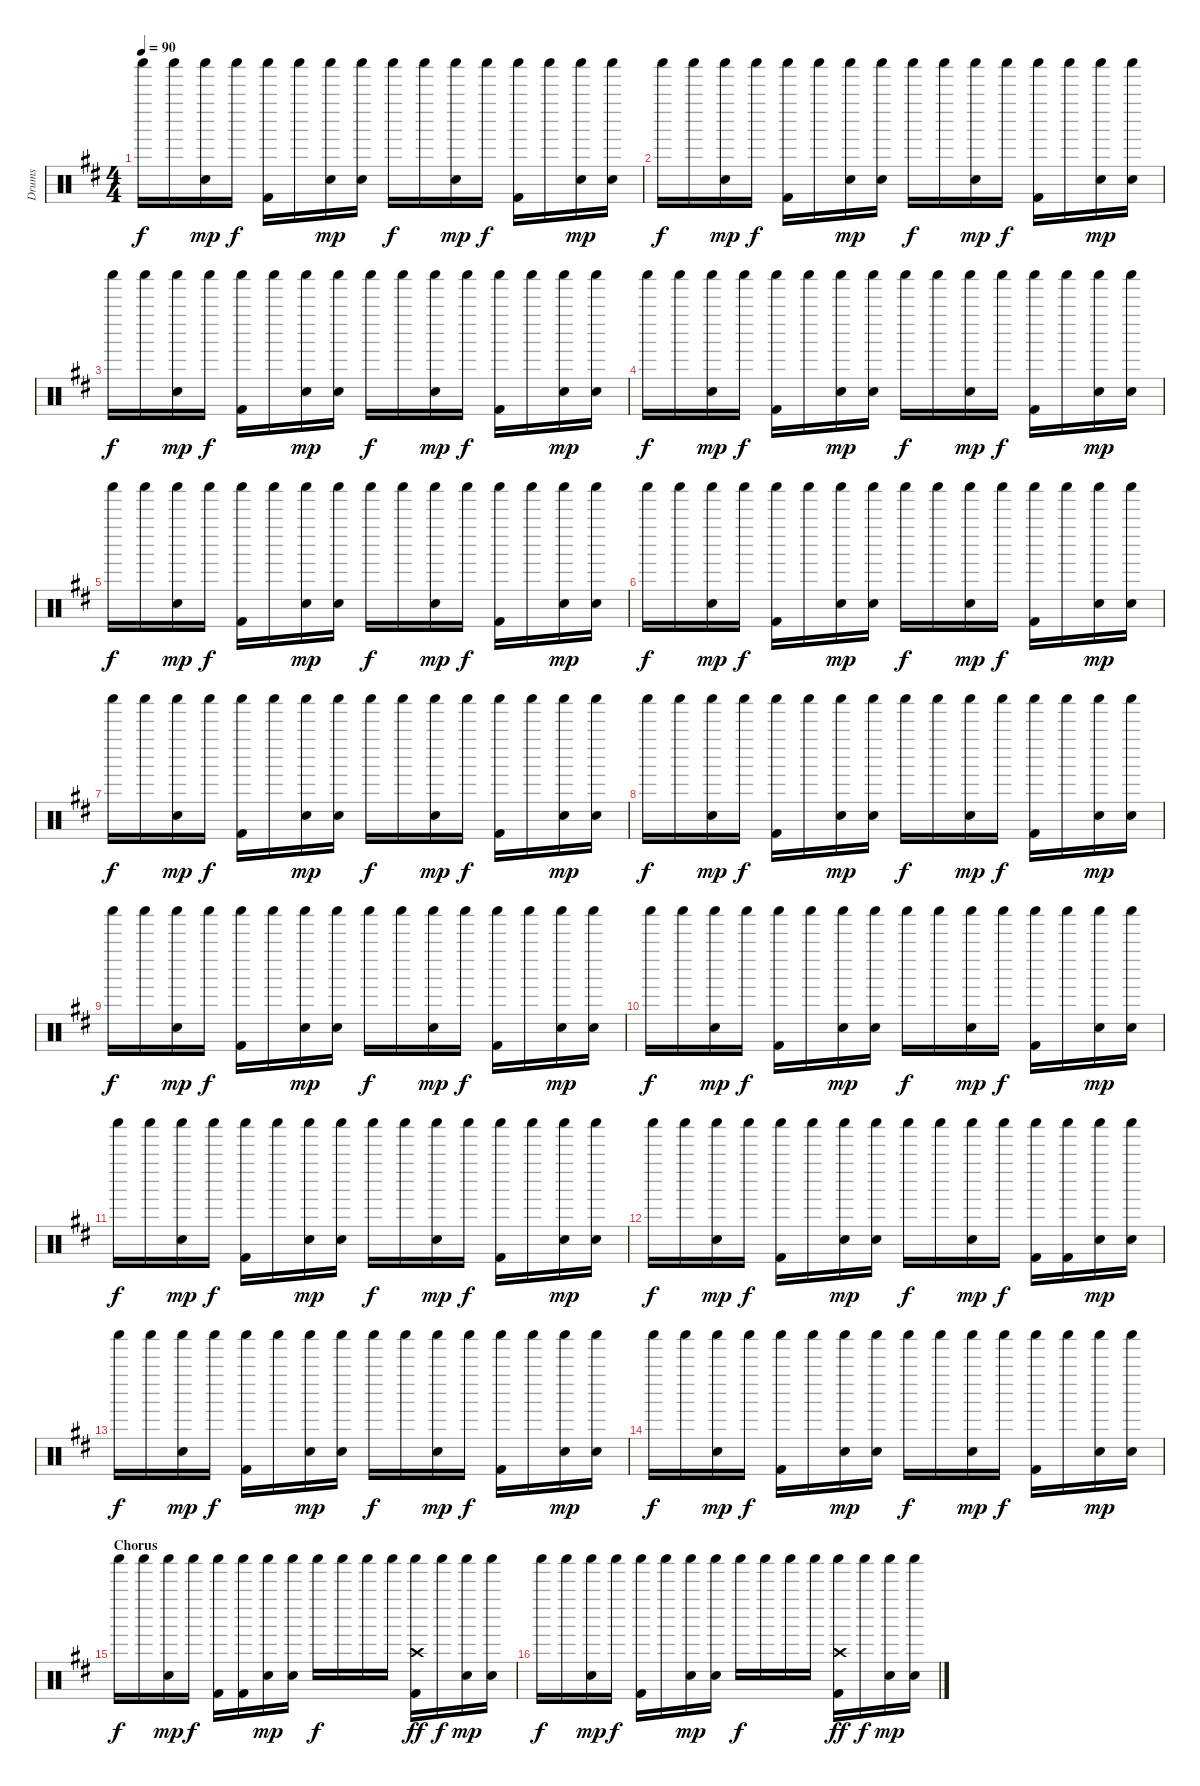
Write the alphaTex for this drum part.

\track ("Drums" "Drums") {instrument percussion}
\staff {score}
\articulation defaults
\ts (4 4)
\tempo 90
\clef neutral
\ks bminor "Shaker (hit)".16{dy f} "Shaker (hit)".16
("Shaker (hit)" "Electric Snare (hit)").16{dy mp} "Shaker (hit)".16{dy f} ("Shaker (hit)" "Kick (hit) 2").16 "Shaker (hit)".16 ("Shaker (hit)" "Electric Snare (hit)").16{dy mp} ("Shaker (hit)" "Electric Snare (hit)").16 "Shaker (hit)".16{dy f} "Shaker (hit)".16 ("Shaker (hit)" "Electric Snare (hit)").16{dy mp} "Shaker (hit)".16{dy f} ("Shaker (hit)" "Kick (hit) 2").16 "Shaker (hit)".16 ("Shaker (hit)" "Electric Snare (hit)").16{dy mp} ("Shaker (hit)" "Electric Snare (hit)").16 |
"Shaker (hit)".16{dy f} "Shaker (hit)".16 ("Shaker (hit)" "Electric Snare (hit)").16{dy mp} "Shaker (hit)".16{dy f} ("Shaker (hit)" "Kick (hit) 2").16 "Shaker (hit)".16 ("Shaker (hit)" "Electric Snare (hit)").16{dy mp} ("Shaker (hit)" "Electric Snare (hit)").16 "Shaker (hit)".16{dy f} "Shaker (hit)".16 ("Shaker (hit)" "Electric Snare (hit)").16{dy mp} "Shaker (hit)".16{dy f} ("Shaker (hit)" "Kick (hit) 2").16 "Shaker (hit)".16 ("Shaker (hit)" "Electric Snare (hit)").16{dy mp} ("Shaker (hit)" "Electric Snare (hit)").16 |
"Shaker (hit)".16{dy f} "Shaker (hit)".16 ("Shaker (hit)" "Electric Snare (hit)").16{dy mp} "Shaker (hit)".16{dy f} ("Shaker (hit)" "Kick (hit) 2").16 "Shaker (hit)".16 ("Shaker (hit)" "Electric Snare (hit)").16{dy mp} ("Shaker (hit)" "Electric Snare (hit)").16 "Shaker (hit)".16{dy f} "Shaker (hit)".16 ("Shaker (hit)" "Electric Snare (hit)").16{dy mp} "Shaker (hit)".16{dy f} ("Shaker (hit)" "Kick (hit) 2").16 "Shaker (hit)".16 ("Shaker (hit)" "Electric Snare (hit)").16{dy mp} ("Shaker (hit)" "Electric Snare (hit)").16 |
"Shaker (hit)".16{dy f} "Shaker (hit)".16 ("Shaker (hit)" "Electric Snare (hit)").16{dy mp} "Shaker (hit)".16{dy f} ("Shaker (hit)" "Kick (hit) 2").16 "Shaker (hit)".16 ("Shaker (hit)" "Electric Snare (hit)").16{dy mp} ("Shaker (hit)" "Electric Snare (hit)").16 "Shaker (hit)".16{dy f} "Shaker (hit)".16 ("Shaker (hit)" "Electric Snare (hit)").16{dy mp} "Shaker (hit)".16{dy f} ("Shaker (hit)" "Kick (hit) 2").16 "Shaker (hit)".16 ("Shaker (hit)" "Electric Snare (hit)").16{dy mp} ("Shaker (hit)" "Electric Snare (hit)").16 |
"Shaker (hit)".16{dy f} "Shaker (hit)".16 ("Shaker (hit)" "Electric Snare (hit)").16{dy mp} "Shaker (hit)".16{dy f} ("Shaker (hit)" "Kick (hit) 2").16 "Shaker (hit)".16 ("Shaker (hit)" "Electric Snare (hit)").16{dy mp} ("Shaker (hit)" "Electric Snare (hit)").16 "Shaker (hit)".16{dy f} "Shaker (hit)".16 ("Shaker (hit)" "Electric Snare (hit)").16{dy mp} "Shaker (hit)".16{dy f} ("Shaker (hit)" "Kick (hit) 2").16 "Shaker (hit)".16 ("Shaker (hit)" "Electric Snare (hit)").16{dy mp} ("Shaker (hit)" "Electric Snare (hit)").16 |
"Shaker (hit)".16{dy f} "Shaker (hit)".16 ("Shaker (hit)" "Electric Snare (hit)").16{dy mp} "Shaker (hit)".16{dy f} ("Shaker (hit)" "Kick (hit) 2").16 "Shaker (hit)".16 ("Shaker (hit)" "Electric Snare (hit)").16{dy mp} ("Shaker (hit)" "Electric Snare (hit)").16 "Shaker (hit)".16{dy f} "Shaker (hit)".16 ("Shaker (hit)" "Electric Snare (hit)").16{dy mp} "Shaker (hit)".16{dy f} ("Shaker (hit)" "Kick (hit) 2").16 "Shaker (hit)".16 ("Shaker (hit)" "Electric Snare (hit)").16{dy mp} ("Shaker (hit)" "Electric Snare (hit)").16 |
"Shaker (hit)".16{dy f} "Shaker (hit)".16 ("Shaker (hit)" "Electric Snare (hit)").16{dy mp} "Shaker (hit)".16{dy f} ("Shaker (hit)" "Kick (hit) 2").16 "Shaker (hit)".16 ("Shaker (hit)" "Electric Snare (hit)").16{dy mp} ("Shaker (hit)" "Electric Snare (hit)").16 "Shaker (hit)".16{dy f} "Shaker (hit)".16 ("Shaker (hit)" "Electric Snare (hit)").16{dy mp} "Shaker (hit)".16{dy f} ("Shaker (hit)" "Kick (hit) 2").16 "Shaker (hit)".16 ("Shaker (hit)" "Electric Snare (hit)").16{dy mp} ("Shaker (hit)" "Electric Snare (hit)").16 |
"Shaker (hit)".16{dy f} "Shaker (hit)".16 ("Shaker (hit)" "Electric Snare (hit)").16{dy mp} "Shaker (hit)".16{dy f} ("Shaker (hit)" "Kick (hit) 2").16 "Shaker (hit)".16 ("Shaker (hit)" "Electric Snare (hit)").16{dy mp} ("Shaker (hit)" "Electric Snare (hit)").16 "Shaker (hit)".16{dy f} "Shaker (hit)".16 ("Shaker (hit)" "Electric Snare (hit)").16{dy mp} "Shaker (hit)".16{dy f} ("Shaker (hit)" "Kick (hit) 2").16 "Shaker (hit)".16 ("Shaker (hit)" "Electric Snare (hit)").16{dy mp} ("Shaker (hit)" "Electric Snare (hit)").16 |
"Shaker (hit)".16{dy f} "Shaker (hit)".16 ("Shaker (hit)" "Electric Snare (hit)").16{dy mp} "Shaker (hit)".16{dy f} ("Shaker (hit)" "Kick (hit) 2").16 "Shaker (hit)".16 ("Shaker (hit)" "Electric Snare (hit)").16{dy mp} ("Shaker (hit)" "Electric Snare (hit)").16 "Shaker (hit)".16{dy f} "Shaker (hit)".16 ("Shaker (hit)" "Electric Snare (hit)").16{dy mp} "Shaker (hit)".16{dy f} ("Shaker (hit)" "Kick (hit) 2").16 "Shaker (hit)".16 ("Shaker (hit)" "Electric Snare (hit)").16{dy mp} ("Shaker (hit)" "Electric Snare (hit)").16 |
"Shaker (hit)".16{dy f} "Shaker (hit)".16 ("Shaker (hit)" "Electric Snare (hit)").16{dy mp} "Shaker (hit)".16{dy f} ("Shaker (hit)" "Kick (hit) 2").16 "Shaker (hit)".16 ("Shaker (hit)" "Electric Snare (hit)").16{dy mp} ("Shaker (hit)" "Electric Snare (hit)").16 "Shaker (hit)".16{dy f} "Shaker (hit)".16 ("Shaker (hit)" "Electric Snare (hit)").16{dy mp} "Shaker (hit)".16{dy f} ("Shaker (hit)" "Kick (hit) 2").16 "Shaker (hit)".16 ("Shaker (hit)" "Electric Snare (hit)").16{dy mp} ("Shaker (hit)" "Electric Snare (hit)").16 |
"Shaker (hit)".16{dy f} "Shaker (hit)".16 ("Shaker (hit)" "Electric Snare (hit)").16{dy mp} "Shaker (hit)".16{dy f} ("Shaker (hit)" "Kick (hit) 2").16 "Shaker (hit)".16 ("Shaker (hit)" "Electric Snare (hit)").16{dy mp} ("Shaker (hit)" "Electric Snare (hit)").16 "Shaker (hit)".16{dy f} "Shaker (hit)".16 ("Shaker (hit)" "Electric Snare (hit)").16{dy mp} "Shaker (hit)".16{dy f} ("Shaker (hit)" "Kick (hit) 2").16 "Shaker (hit)".16 ("Shaker (hit)" "Electric Snare (hit)").16{dy mp} ("Shaker (hit)" "Electric Snare (hit)").16 |
"Shaker (hit)".16{dy f} "Shaker (hit)".16 ("Shaker (hit)" "Electric Snare (hit)").16{dy mp} "Shaker (hit)".16{dy f} ("Shaker (hit)" "Kick (hit) 2").16 "Shaker (hit)".16 ("Shaker (hit)" "Electric Snare (hit)").16{dy mp} ("Shaker (hit)" "Electric Snare (hit)").16 "Shaker (hit)".16{dy f} "Shaker (hit)".16 ("Shaker (hit)" "Electric Snare (hit)").16{dy mp} "Shaker (hit)".16{dy f} ("Shaker (hit)" "Kick (hit) 2").16 ("Shaker (hit)" "Kick (hit) 2").16 ("Shaker (hit)" "Electric Snare (hit)").16{dy mp} ("Shaker (hit)" "Electric Snare (hit)").16 |
"Shaker (hit)".16{dy f} "Shaker (hit)".16 ("Shaker (hit)" "Electric Snare (hit)").16{dy mp} "Shaker (hit)".16{dy f} ("Shaker (hit)" "Kick (hit) 2").16 "Shaker (hit)".16 ("Shaker (hit)" "Electric Snare (hit)").16{dy mp} ("Shaker (hit)" "Electric Snare (hit)").16 "Shaker (hit)".16{dy f} "Shaker (hit)".16 ("Shaker (hit)" "Electric Snare (hit)").16{dy mp} "Shaker (hit)".16{dy f} ("Shaker (hit)" "Kick (hit) 2").16 "Shaker (hit)".16 ("Shaker (hit)" "Electric Snare (hit)").16{dy mp} ("Shaker (hit)" "Electric Snare (hit)").16 |
"Shaker (hit)".16{dy f} "Shaker (hit)".16 ("Shaker (hit)" "Electric Snare (hit)").16{dy mp} "Shaker (hit)".16{dy f} ("Shaker (hit)" "Kick (hit) 2").16 "Shaker (hit)".16 ("Shaker (hit)" "Electric Snare (hit)").16{dy mp} ("Shaker (hit)" "Electric Snare (hit)").16 "Shaker (hit)".16{dy f} "Shaker (hit)".16 ("Shaker (hit)" "Electric Snare (hit)").16{dy mp} "Shaker (hit)".16{dy f} ("Shaker (hit)" "Kick (hit) 2").16 "Shaker (hit)".16 ("Shaker (hit)" "Electric Snare (hit)").16{dy mp} ("Shaker (hit)" "Electric Snare (hit)").16 |
\section ("" "Chorus")
"Shaker (hit)".16{dy f} "Shaker (hit)".16 ("Shaker (hit)" "Electric Snare (hit)").16{dy mp} "Shaker (hit)".16{dy f} ("Shaker (hit)" "Kick (hit) 2").16 ("Shaker (hit)" "Kick (hit) 2").16 ("Shaker (hit)" "Electric Snare (hit)").16{dy mp} ("Shaker (hit)" "Electric Snare (hit)").16 "Shaker (hit)".16{dy f} "Shaker (hit)".16 "Shaker (hit)".16 "Shaker (hit)".16 ("Shaker (hit)" "Crash high (hit)" "Kick (hit) 2").16{dy ff} "Shaker (hit)".16{dy f} ("Shaker (hit)" "Electric Snare (hit)").16{dy mp} ("Shaker (hit)" "Electric Snare (hit)").16 |
"Shaker (hit)".16{dy f} "Shaker (hit)".16 ("Shaker (hit)" "Electric Snare (hit)").16{dy mp} "Shaker (hit)".16{dy f} ("Shaker (hit)" "Kick (hit) 2").16 "Shaker (hit)".16 ("Shaker (hit)" "Electric Snare (hit)").16{dy mp} ("Shaker (hit)" "Electric Snare (hit)").16 "Shaker (hit)".16{dy f} "Shaker (hit)".16 "Shaker (hit)".16 "Shaker (hit)".16 ("Shaker (hit)" "Crash high (hit)" "Kick (hit) 2").16{dy ff} "Shaker (hit)".16{dy f} ("Shaker (hit)" "Electric Snare (hit)").16{dy mp} ("Shaker (hit)" "Electric Snare (hit)").16
